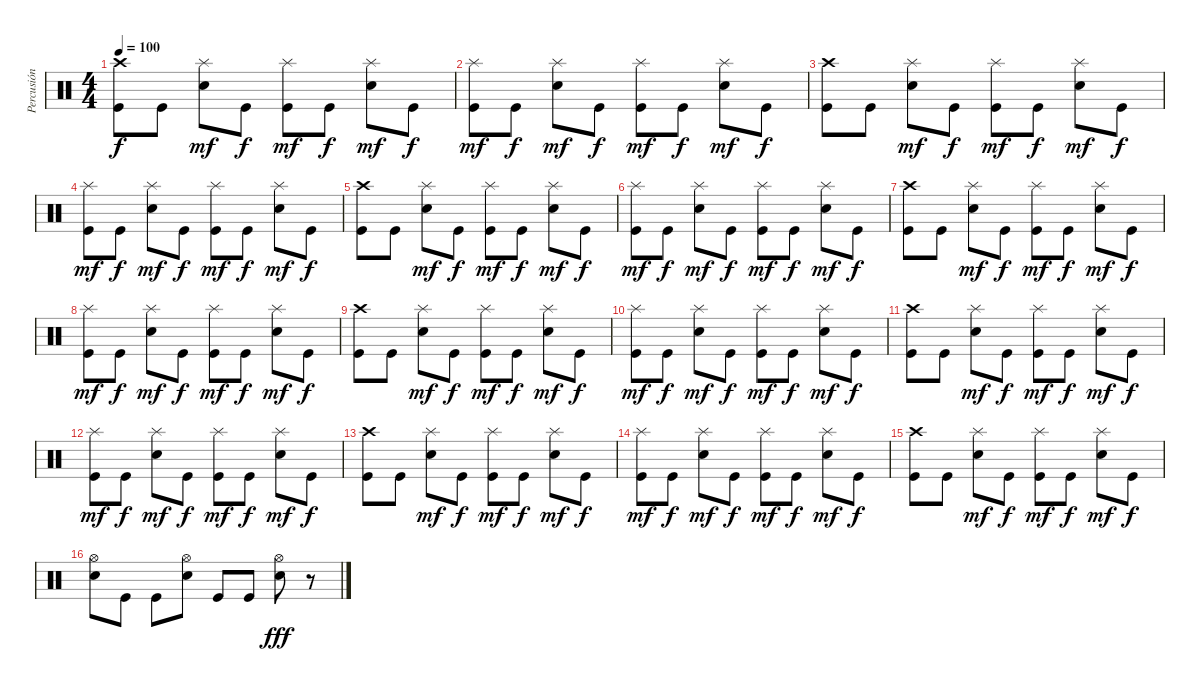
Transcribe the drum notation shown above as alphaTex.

\track ("Percusión" "Percusión") {instrument percussion}
\staff {score}
\articulation defaults
\ts (4 4)
\tempo 100
\clef neutral
\ks c
("Crash high (hit)" "Kick (hit)").8{dy f} "Kick (hit)".8 ("Splash (hit)" "Electric Snare (hit)").8{dy mf} "Kick (hit)".8{dy f} ("Splash (hit)" "Kick (hit)").8{dy mf} "Kick (hit)".8{dy f} ("Splash (hit)" "Electric Snare (hit)").8{dy mf} "Kick (hit)".8{dy f} |
("Splash (hit)" "Kick (hit)").8{dy mf} "Kick (hit)".8{dy f} ("Splash (hit)" "Electric Snare (hit)").8{dy mf} "Kick (hit)".8{dy f} ("Splash (hit)" "Kick (hit)").8{dy mf} "Kick (hit)".8{dy f} ("Splash (hit)" "Electric Snare (hit)").8{dy mf} "Kick (hit)".8{dy f} |
("Crash high (hit)" "Kick (hit)").8 "Kick (hit)".8 ("Splash (hit)" "Electric Snare (hit)").8{dy mf} "Kick (hit)".8{dy f} ("Splash (hit)" "Kick (hit)").8{dy mf} "Kick (hit)".8{dy f} ("Splash (hit)" "Electric Snare (hit)").8{dy mf} "Kick (hit)".8{dy f} |
("Splash (hit)" "Kick (hit)").8{dy mf} "Kick (hit)".8{dy f} ("Splash (hit)" "Electric Snare (hit)").8{dy mf} "Kick (hit)".8{dy f} ("Splash (hit)" "Kick (hit)").8{dy mf} "Kick (hit)".8{dy f} ("Splash (hit)" "Electric Snare (hit)").8{dy mf} "Kick (hit)".8{dy f} |
("Crash high (hit)" "Kick (hit)").8 "Kick (hit)".8 ("Splash (hit)" "Electric Snare (hit)").8{dy mf} "Kick (hit)".8{dy f} ("Splash (hit)" "Kick (hit)").8{dy mf} "Kick (hit)".8{dy f} ("Splash (hit)" "Electric Snare (hit)").8{dy mf} "Kick (hit)".8{dy f} |
("Splash (hit)" "Kick (hit)").8{dy mf} "Kick (hit)".8{dy f} ("Splash (hit)" "Electric Snare (hit)").8{dy mf} "Kick (hit)".8{dy f} ("Splash (hit)" "Kick (hit)").8{dy mf} "Kick (hit)".8{dy f} ("Splash (hit)" "Electric Snare (hit)").8{dy mf} "Kick (hit)".8{dy f} |
("Crash high (hit)" "Kick (hit)").8 "Kick (hit)".8 ("Splash (hit)" "Electric Snare (hit)").8{dy mf} "Kick (hit)".8{dy f} ("Splash (hit)" "Kick (hit)").8{dy mf} "Kick (hit)".8{dy f} ("Splash (hit)" "Electric Snare (hit)").8{dy mf} "Kick (hit)".8{dy f} |
("Splash (hit)" "Kick (hit)").8{dy mf} "Kick (hit)".8{dy f} ("Splash (hit)" "Electric Snare (hit)").8{dy mf} "Kick (hit)".8{dy f} ("Splash (hit)" "Kick (hit)").8{dy mf} "Kick (hit)".8{dy f} ("Splash (hit)" "Electric Snare (hit)").8{dy mf} "Kick (hit)".8{dy f} |
("Crash high (hit)" "Kick (hit)").8 "Kick (hit)".8 ("Splash (hit)" "Electric Snare (hit)").8{dy mf} "Kick (hit)".8{dy f} ("Splash (hit)" "Kick (hit)").8{dy mf} "Kick (hit)".8{dy f} ("Splash (hit)" "Electric Snare (hit)").8{dy mf} "Kick (hit)".8{dy f} |
("Splash (hit)" "Kick (hit)").8{dy mf} "Kick (hit)".8{dy f} ("Splash (hit)" "Electric Snare (hit)").8{dy mf} "Kick (hit)".8{dy f} ("Splash (hit)" "Kick (hit)").8{dy mf} "Kick (hit)".8{dy f} ("Splash (hit)" "Electric Snare (hit)").8{dy mf} "Kick (hit)".8{dy f} |
("Crash high (hit)" "Kick (hit)").8 "Kick (hit)".8 ("Splash (hit)" "Electric Snare (hit)").8{dy mf} "Kick (hit)".8{dy f} ("Splash (hit)" "Kick (hit)").8{dy mf} "Kick (hit)".8{dy f} ("Splash (hit)" "Electric Snare (hit)").8{dy mf} "Kick (hit)".8{dy f} |
("Splash (hit)" "Kick (hit)").8{dy mf} "Kick (hit)".8{dy f} ("Splash (hit)" "Electric Snare (hit)").8{dy mf} "Kick (hit)".8{dy f} ("Splash (hit)" "Kick (hit)").8{dy mf} "Kick (hit)".8{dy f} ("Splash (hit)" "Electric Snare (hit)").8{dy mf} "Kick (hit)".8{dy f} |
("Crash high (hit)" "Kick (hit)").8 "Kick (hit)".8 ("Splash (hit)" "Electric Snare (hit)").8{dy mf} "Kick (hit)".8{dy f} ("Splash (hit)" "Kick (hit)").8{dy mf} "Kick (hit)".8{dy f} ("Splash (hit)" "Electric Snare (hit)").8{dy mf} "Kick (hit)".8{dy f} |
("Splash (hit)" "Kick (hit)").8{dy mf} "Kick (hit)".8{dy f} ("Splash (hit)" "Electric Snare (hit)").8{dy mf} "Kick (hit)".8{dy f} ("Splash (hit)" "Kick (hit)").8{dy mf} "Kick (hit)".8{dy f} ("Splash (hit)" "Electric Snare (hit)").8{dy mf} "Kick (hit)".8{dy f} |
("Crash high (hit)" "Kick (hit)").8 "Kick (hit)".8 ("Splash (hit)" "Electric Snare (hit)").8{dy mf} "Kick (hit)".8{dy f} ("Splash (hit)" "Kick (hit)").8{dy mf} "Kick (hit)".8{dy f} ("Splash (hit)" "Electric Snare (hit)").8{dy mf} "Kick (hit)".8{dy f} |
("Hi-Hat (open)" "Electric Snare (hit)").8 "Kick (hit)".8 "Kick (hit)".8 ("Hi-Hat (open)" "Electric Snare (hit)").8 "Kick (hit)".8 "Kick (hit)".8 ("Hi-Hat (open)" "Electric Snare (hit)").8{dy fff} r.8
